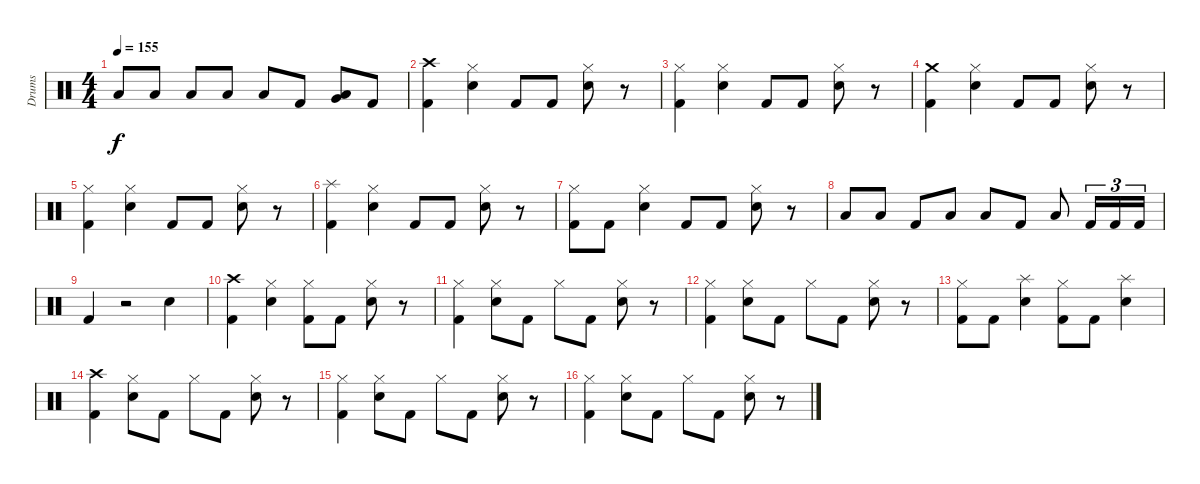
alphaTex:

\track ("Drums" "Drums") {instrument percussion}
\staff {score}
\articulation defaults
\ts (4 4)
\tempo 155
\clef neutral
\ks c "Low Tom (hit)".8{dy f} "Low Tom (hit)".8 "Low Floor Tom (hit)".8 "Low Tom (hit)".8 "Low Tom (hit)".8 "Kick (hit) 2".8
("Very Low Tom (hit)" "Low Tom (hit)").8 "Kick (hit) 2".8 |
("Crash high (hit)" "Kick (hit) 2").4 ("Hi-Hat (closed)" "Snare (hit) 2").4 "Kick (hit) 2".8 "Kick (hit) 2".8 ("Hi-Hat (closed)" "Snare (hit) 2").8 r.8 |
("Hi-Hat (closed)" "Kick (hit) 2").4 ("Hi-Hat (closed)" "Snare (hit) 2").4 "Kick (hit) 2".8 "Kick (hit) 2".8 ("Hi-Hat (closed)" "Snare (hit) 2").8 r.8 |
("Crash medium (hit)" "Kick (hit) 2").4 ("Hi-Hat (closed)" "Snare (hit) 2").4 "Kick (hit) 2".8 "Kick (hit) 2".8 ("Hi-Hat (closed)" "Snare (hit) 2").8 r.8 |
("Hi-Hat (closed)" "Kick (hit) 2").4 ("Hi-Hat (closed)" "Snare (hit) 2").4 "Kick (hit) 2".8 "Kick (hit) 2".8 ("Hi-Hat (closed)" "Snare (hit) 2").8 r.8 |
("Splash (hit)" "Kick (hit) 2").4 ("Hi-Hat (closed)" "Snare (hit) 2").4 "Kick (hit) 2".8 "Kick (hit) 2".8 ("Hi-Hat (closed)" "Snare (hit) 2").8 r.8 |
("Hi-Hat (closed)" "Kick (hit) 2").8 "Kick (hit) 2".8 ("Hi-Hat (closed)" "Snare (hit) 2").4 "Kick (hit) 2".8 "Kick (hit) 2".8 ("Hi-Hat (closed)" "Snare (hit) 2").8 r.8 |
"Low Tom (hit)".8 "Low Tom (hit)".8 "Kick (hit) 2".8 "Low Tom (hit)".8 "Low Tom (hit)".8 "Kick (hit) 2".8 "Low Tom (hit)".8 "Kick (hit) 2".16{tu (3 2)} "Kick (hit) 2".16{tu (3 2)} "Kick (hit) 2".16{tu (3 2)} |
"Kick (hit) 2".4 r.2 "Snare (hit) 2".4 |
("Crash high (hit)" "Kick (hit) 2").4 ("Hi-Hat (closed)" "Snare (hit) 2").4 ("Hi-Hat (closed)" "Kick (hit) 2").8 "Kick (hit) 2".8 ("Hi-Hat (closed)" "Snare (hit) 2").8 r.8 |
("Hi-Hat (closed)" "Kick (hit) 2").4 ("Hi-Hat (closed)" "Snare (hit) 2").8 "Kick (hit) 2".8 "Hi-Hat (closed)".8 "Kick (hit) 2".8 ("Hi-Hat (closed)" "Snare (hit) 2").8 r.8 |
("Hi-Hat (closed)" "Kick (hit) 2").4 ("Hi-Hat (closed)" "Snare (hit) 2").8 "Kick (hit) 2".8 "Hi-Hat (closed)".8 "Kick (hit) 2".8 ("Hi-Hat (closed)" "Snare (hit) 2").8 r.8 |
("Hi-Hat (closed)" "Kick (hit) 2").8 "Kick (hit) 2".8 ("Splash (hit)" "Snare (hit) 2").4 ("Hi-Hat (closed)" "Kick (hit) 2").8 "Kick (hit) 2".8 ("Splash (hit)" "Snare (hit) 2").4 |
("Crash high (hit)" "Kick (hit) 2").4 ("Hi-Hat (closed)" "Snare (hit) 2").8 "Kick (hit) 2".8 "Hi-Hat (closed)".8 "Kick (hit) 2".8 ("Hi-Hat (closed)" "Snare (hit) 2").8 r.8 |
("Hi-Hat (closed)" "Kick (hit) 2").4 ("Hi-Hat (closed)" "Snare (hit) 2").8 "Kick (hit) 2".8 "Hi-Hat (closed)".8 "Kick (hit) 2".8 ("Hi-Hat (closed)" "Snare (hit) 2").8 r.8 |
("Hi-Hat (closed)" "Kick (hit) 2").4 ("Hi-Hat (closed)" "Snare (hit) 2").8 "Kick (hit) 2".8 "Hi-Hat (closed)".8 "Kick (hit) 2".8 ("Hi-Hat (closed)" "Snare (hit) 2").8 r.8
